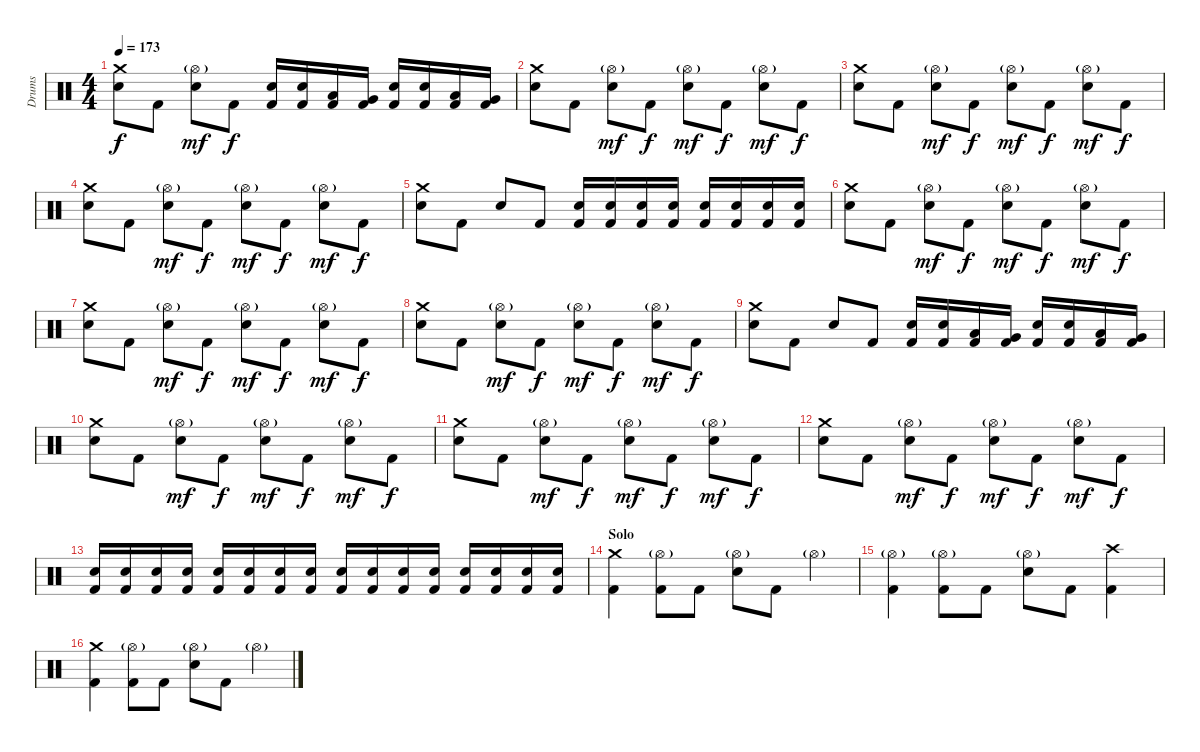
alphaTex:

\track ("Drums" "Drums") {instrument percussion}
\staff {score}
\articulation defaults
\ts (4 4)
\tempo 173
\clef neutral
\ks c
("Crash medium (hit)" "Snare (hit) 2").8{dy f} "Kick (hit) 2".8 ("Hi-Hat (open)"{g} "Snare (hit) 2").8{dy mf} "Kick (hit) 2".8{dy f} ("Snare (hit) 2" "Kick (hit) 2").16 ("Snare (hit) 2" "Kick (hit) 2").16 ("Low Tom (hit)" "Kick (hit) 2").16 ("Very Low Tom (hit)" "Kick (hit) 2").16 ("Snare (hit) 2" "Kick (hit) 2").16 ("Snare (hit) 2" "Kick (hit) 2").16 ("Low Tom (hit)" "Kick (hit) 2").16 ("Very Low Tom (hit)" "Kick (hit) 2").16 |
("Crash medium (hit)" "Snare (hit) 2").8 "Kick (hit) 2".8 ("Hi-Hat (open)"{g} "Snare (hit) 2").8{dy mf} "Kick (hit) 2".8{dy f} ("Hi-Hat (open)"{g} "Snare (hit) 2").8{dy mf} "Kick (hit) 2".8{dy f} ("Hi-Hat (open)"{g} "Snare (hit) 2").8{dy mf} "Kick (hit) 2".8{dy f} |
("Crash medium (hit)" "Snare (hit) 2").8 "Kick (hit) 2".8 ("Hi-Hat (open)"{g} "Snare (hit) 2").8{dy mf} "Kick (hit) 2".8{dy f} ("Hi-Hat (open)"{g} "Snare (hit) 2").8{dy mf} "Kick (hit) 2".8{dy f} ("Hi-Hat (open)"{g} "Snare (hit) 2").8{dy mf} "Kick (hit) 2".8{dy f} |
("Crash medium (hit)" "Snare (hit) 2").8 "Kick (hit) 2".8 ("Hi-Hat (open)"{g} "Snare (hit) 2").8{dy mf} "Kick (hit) 2".8{dy f} ("Hi-Hat (open)"{g} "Snare (hit) 2").8{dy mf} "Kick (hit) 2".8{dy f} ("Hi-Hat (open)"{g} "Snare (hit) 2").8{dy mf} "Kick (hit) 2".8{dy f} |
("Crash medium (hit)" "Snare (hit) 2").8 "Kick (hit) 2".8 "Snare (hit) 2".8 "Kick (hit) 2".8 ("Snare (hit) 2" "Kick (hit) 2").16 ("Snare (hit) 2" "Kick (hit) 2").16 ("Snare (hit) 2" "Kick (hit) 2").16 ("Snare (hit) 2" "Kick (hit) 2").16 ("Snare (hit) 2" "Kick (hit) 2").16 ("Snare (hit) 2" "Kick (hit) 2").16 ("Snare (hit) 2" "Kick (hit) 2").16 ("Snare (hit) 2" "Kick (hit) 2").16 |
("Crash medium (hit)" "Snare (hit) 2").8 "Kick (hit) 2".8 ("Hi-Hat (open)"{g} "Snare (hit) 2").8{dy mf} "Kick (hit) 2".8{dy f} ("Hi-Hat (open)"{g} "Snare (hit) 2").8{dy mf} "Kick (hit) 2".8{dy f} ("Hi-Hat (open)"{g} "Snare (hit) 2").8{dy mf} "Kick (hit) 2".8{dy f} |
("Crash medium (hit)" "Snare (hit) 2").8 "Kick (hit) 2".8 ("Hi-Hat (open)"{g} "Snare (hit) 2").8{dy mf} "Kick (hit) 2".8{dy f} ("Hi-Hat (open)"{g} "Snare (hit) 2").8{dy mf} "Kick (hit) 2".8{dy f} ("Hi-Hat (open)"{g} "Snare (hit) 2").8{dy mf} "Kick (hit) 2".8{dy f} |
("Crash medium (hit)" "Snare (hit) 2").8 "Kick (hit) 2".8 ("Hi-Hat (open)"{g} "Snare (hit) 2").8{dy mf} "Kick (hit) 2".8{dy f} ("Hi-Hat (open)"{g} "Snare (hit) 2").8{dy mf} "Kick (hit) 2".8{dy f} ("Hi-Hat (open)"{g} "Snare (hit) 2").8{dy mf} "Kick (hit) 2".8{dy f} |
("Crash medium (hit)" "Snare (hit) 2").8 "Kick (hit) 2".8 "Snare (hit) 2".8 "Kick (hit) 2".8 ("Snare (hit) 2" "Kick (hit) 2").16 ("Snare (hit) 2" "Kick (hit) 2").16 ("Low Tom (hit)" "Kick (hit) 2").16 ("Very Low Tom (hit)" "Kick (hit) 2").16 ("Snare (hit) 2" "Kick (hit) 2").16 ("Snare (hit) 2" "Kick (hit) 2").16 ("Low Tom (hit)" "Kick (hit) 2").16 ("Very Low Tom (hit)" "Kick (hit) 2").16 |
("Crash medium (hit)" "Snare (hit) 2").8 "Kick (hit) 2".8 ("Hi-Hat (open)"{g} "Snare (hit) 2").8{dy mf} "Kick (hit) 2".8{dy f} ("Hi-Hat (open)"{g} "Snare (hit) 2").8{dy mf} "Kick (hit) 2".8{dy f} ("Hi-Hat (open)"{g} "Snare (hit) 2").8{dy mf} "Kick (hit) 2".8{dy f} |
("Crash medium (hit)" "Snare (hit) 2").8 "Kick (hit) 2".8 ("Hi-Hat (open)"{g} "Snare (hit) 2").8{dy mf} "Kick (hit) 2".8{dy f} ("Hi-Hat (open)"{g} "Snare (hit) 2").8{dy mf} "Kick (hit) 2".8{dy f} ("Hi-Hat (open)"{g} "Snare (hit) 2").8{dy mf} "Kick (hit) 2".8{dy f} |
("Crash medium (hit)" "Snare (hit) 2").8 "Kick (hit) 2".8 ("Hi-Hat (open)"{g} "Snare (hit) 2").8{dy mf} "Kick (hit) 2".8{dy f} ("Hi-Hat (open)"{g} "Snare (hit) 2").8{dy mf} "Kick (hit) 2".8{dy f} ("Hi-Hat (open)"{g} "Snare (hit) 2").8{dy mf} "Kick (hit) 2".8{dy f} |
("Snare (hit) 2" "Kick (hit) 2").16 ("Snare (hit) 2" "Kick (hit) 2").16 ("Snare (hit) 2" "Kick (hit) 2").16 ("Snare (hit) 2" "Kick (hit) 2").16 ("Snare (hit) 2" "Kick (hit) 2").16 ("Snare (hit) 2" "Kick (hit) 2").16 ("Snare (hit) 2" "Kick (hit) 2").16 ("Snare (hit) 2" "Kick (hit) 2").16 ("Snare (hit) 2" "Kick (hit) 2").16 ("Snare (hit) 2" "Kick (hit) 2").16 ("Snare (hit) 2" "Kick (hit) 2").16 ("Snare (hit) 2" "Kick (hit) 2").16 ("Snare (hit) 2" "Kick (hit) 2").16 ("Snare (hit) 2" "Kick (hit) 2").16 ("Snare (hit) 2" "Kick (hit) 2").16 ("Snare (hit) 2" "Kick (hit) 2").16 |
\section ("" "Solo")
("Crash medium (hit)" "Kick (hit) 2").4 ("Hi-Hat (open)"{g} "Kick (hit) 2").8 "Kick (hit) 2".8 ("Hi-Hat (open)"{g} "Snare (hit) 2").8 "Kick (hit) 2".8 "Hi-Hat (open)"{g}.4 |
("Hi-Hat (open)"{g} "Kick (hit) 2").4 ("Hi-Hat (open)"{g} "Kick (hit) 2").8 "Kick (hit) 2".8 ("Hi-Hat (open)"{g} "Snare (hit) 2").8 "Kick (hit) 2".8 ("Crash high (hit)" "Kick (hit) 2").4 |
("Crash medium (hit)" "Kick (hit) 2").4 ("Hi-Hat (open)"{g} "Kick (hit) 2").8 "Kick (hit) 2".8 ("Hi-Hat (open)"{g} "Snare (hit) 2").8 "Kick (hit) 2".8 "Hi-Hat (open)"{g}.4
